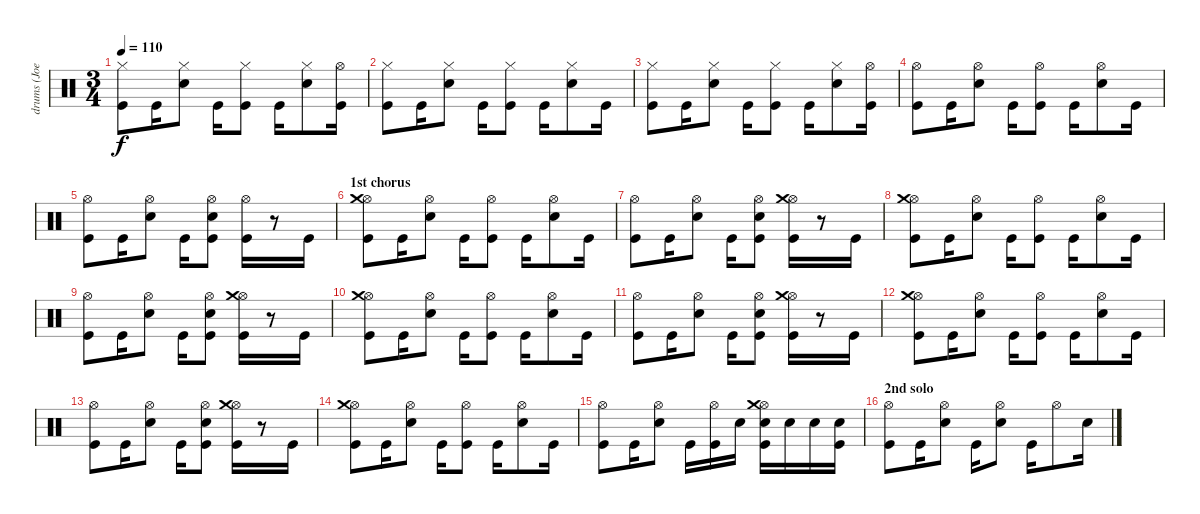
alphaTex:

\track ("drums (Joey Castillo)" "drums (Joe") {instrument percussion}
\staff {score}
\articulation defaults
\ts (3 4)
\tempo 110
\clef neutral
\ks c
("Kick (hit)" "Hi-Hat (closed)").8{dy f} "Kick (hit)".16 ("Electric Snare (hit)" "Hi-Hat (closed)").8 "Kick (hit)".16 ("Kick (hit)" "Hi-Hat (closed)").8 "Kick (hit)".16 ("Electric Snare (hit)" "Hi-Hat (closed)").8 ("Kick (hit)" "Hi-Hat (open)").16 |
("Kick (hit)" "Hi-Hat (closed)").8 "Kick (hit)".16 ("Electric Snare (hit)" "Hi-Hat (closed)").8 "Kick (hit)".16 ("Kick (hit)" "Hi-Hat (closed)").8 "Kick (hit)".16 ("Electric Snare (hit)" "Hi-Hat (closed)").8 "Kick (hit)".16 |
("Kick (hit)" "Hi-Hat (closed)").8 "Kick (hit)".16 ("Electric Snare (hit)" "Hi-Hat (closed)").8 "Kick (hit)".16 ("Kick (hit)" "Hi-Hat (closed)").8 "Kick (hit)".16 ("Electric Snare (hit)" "Hi-Hat (closed)").8 ("Kick (hit)" "Hi-Hat (open)").16 |
("Kick (hit)" "Hi-Hat (open)").8 "Kick (hit)".16 ("Electric Snare (hit)" "Hi-Hat (open)").8 "Kick (hit)".16 ("Kick (hit)" "Hi-Hat (open)").8 "Kick (hit)".16 ("Electric Snare (hit)" "Hi-Hat (open)").8 "Kick (hit)".16 |
("Kick (hit)" "Hi-Hat (open)").8 "Kick (hit)".16 ("Electric Snare (hit)" "Hi-Hat (open)").8 "Kick (hit)".16 ("Kick (hit)" "Electric Snare (hit)" "Hi-Hat (open)").8 ("Kick (hit)" "Hi-Hat (open)").16 r.8 "Kick (hit)".16 |
\section ("" "1st chorus")
("Kick (hit)" "Hi-Hat (open)" "Crash medium (hit)").8 "Kick (hit)".16 ("Electric Snare (hit)" "Hi-Hat (open)").8 "Kick (hit)".16 ("Kick (hit)" "Hi-Hat (open)").8 "Kick (hit)".16 ("Electric Snare (hit)" "Hi-Hat (open)").8 "Kick (hit)".16 |
("Kick (hit)" "Hi-Hat (open)").8 "Kick (hit)".16 ("Electric Snare (hit)" "Hi-Hat (open)").8 "Kick (hit)".16 ("Kick (hit)" "Electric Snare (hit)" "Hi-Hat (open)").8 ("Kick (hit)" "Hi-Hat (open)" "Crash medium (hit)").16 r.8 "Kick (hit)".16 |
("Kick (hit)" "Hi-Hat (open)" "Crash medium (hit)").8 "Kick (hit)".16 ("Electric Snare (hit)" "Hi-Hat (open)").8 "Kick (hit)".16 ("Kick (hit)" "Hi-Hat (open)").8 "Kick (hit)".16 ("Electric Snare (hit)" "Hi-Hat (open)").8 "Kick (hit)".16 |
("Kick (hit)" "Hi-Hat (open)").8 "Kick (hit)".16 ("Electric Snare (hit)" "Hi-Hat (open)").8 "Kick (hit)".16 ("Kick (hit)" "Electric Snare (hit)" "Hi-Hat (open)").8 ("Kick (hit)" "Hi-Hat (open)" "Crash medium (hit)").16 r.8 "Kick (hit)".16 |
("Kick (hit)" "Hi-Hat (open)" "Crash medium (hit)").8 "Kick (hit)".16 ("Electric Snare (hit)" "Hi-Hat (open)").8 "Kick (hit)".16 ("Kick (hit)" "Hi-Hat (open)").8 "Kick (hit)".16 ("Electric Snare (hit)" "Hi-Hat (open)").8 "Kick (hit)".16 |
("Kick (hit)" "Hi-Hat (open)").8 "Kick (hit)".16 ("Electric Snare (hit)" "Hi-Hat (open)").8 "Kick (hit)".16 ("Kick (hit)" "Electric Snare (hit)" "Hi-Hat (open)").8 ("Kick (hit)" "Hi-Hat (open)" "Crash medium (hit)").16 r.8 "Kick (hit)".16 |
("Kick (hit)" "Hi-Hat (open)" "Crash medium (hit)").8 "Kick (hit)".16 ("Electric Snare (hit)" "Hi-Hat (open)").8 "Kick (hit)".16 ("Kick (hit)" "Hi-Hat (open)").8 "Kick (hit)".16 ("Electric Snare (hit)" "Hi-Hat (open)").8 "Kick (hit)".16 |
("Kick (hit)" "Hi-Hat (open)").8 "Kick (hit)".16 ("Electric Snare (hit)" "Hi-Hat (open)").8 "Kick (hit)".16 ("Kick (hit)" "Electric Snare (hit)" "Hi-Hat (open)").8 ("Kick (hit)" "Hi-Hat (open)" "Crash medium (hit)").16 r.8 "Kick (hit)".16 |
("Kick (hit)" "Hi-Hat (open)" "Crash medium (hit)").8 "Kick (hit)".16 ("Electric Snare (hit)" "Hi-Hat (open)").8 "Kick (hit)".16 ("Kick (hit)" "Hi-Hat (open)").8 "Kick (hit)".16 ("Electric Snare (hit)" "Hi-Hat (open)").8 "Kick (hit)".16 |
("Kick (hit)" "Hi-Hat (open)").8 "Kick (hit)".16 ("Electric Snare (hit)" "Hi-Hat (open)").8 "Kick (hit)".16 ("Kick (hit)" "Hi-Hat (open)").16 "Electric Snare (hit)".16 ("Kick (hit)" "Electric Snare (hit)" "Hi-Hat (open)" "Crash medium (hit)").16 "Electric Snare (hit)".16 "Electric Snare (hit)".16 ("Kick (hit)" "Electric Snare (hit)").16 |
\section ("" "2nd solo")
("Kick (hit)" "Hi-Hat (open)").8 "Kick (hit)".16 ("Electric Snare (hit)" "Hi-Hat (open)").8 "Kick (hit)".16 ("Electric Snare (hit)" "Hi-Hat (open)").8 "Kick (hit)".16 "Hi-Hat (open)".8 "Electric Snare (hit)".16
